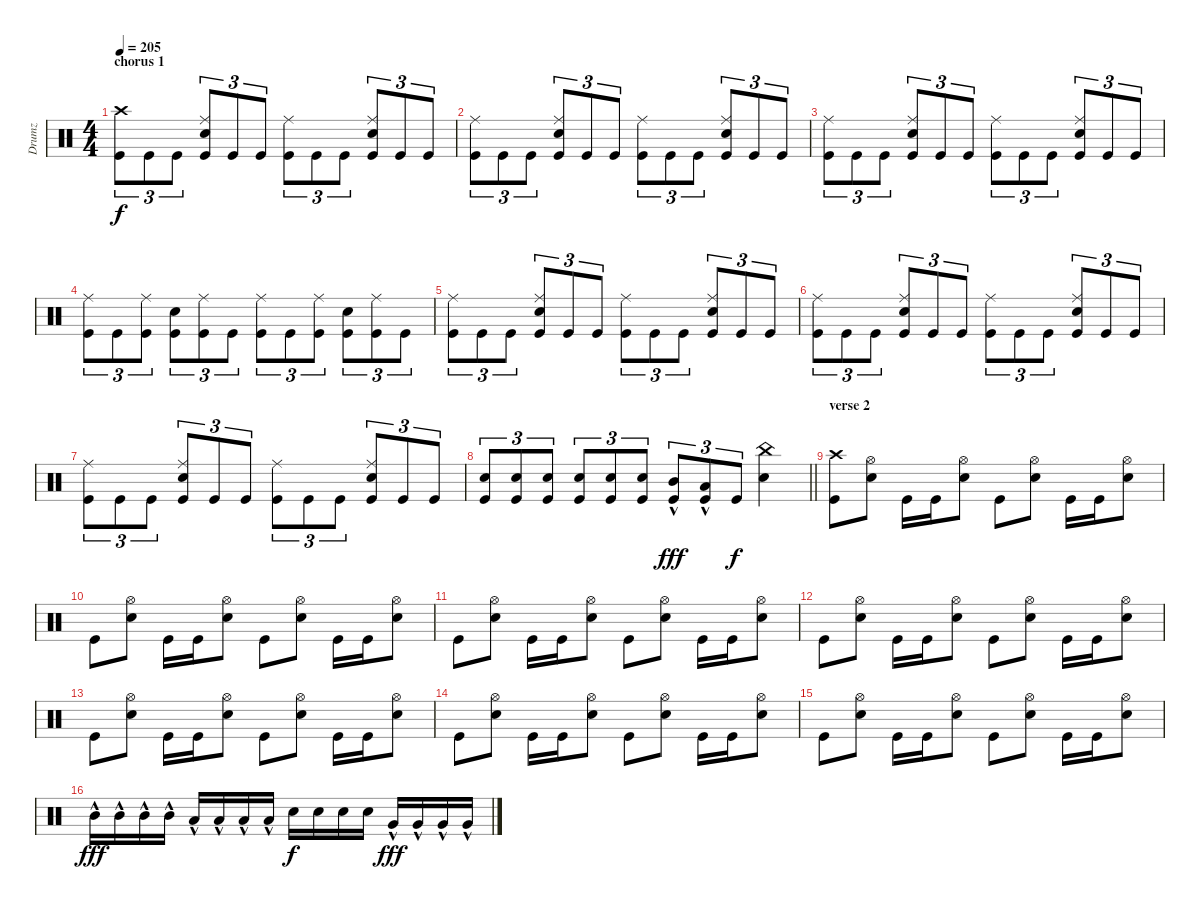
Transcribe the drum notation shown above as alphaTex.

\track ("Drumz" "Drumz") {instrument percussion}
\staff {score}
\articulation defaults
\ts (4 4)
\section ("" "chorus 1")
\tempo 205
\clef neutral
\ks c
("Crash high (hit)" "Kick (hit)").8{tu (3 2) dy f} "Kick (hit)".8{tu (3 2)} "Kick (hit)".8{tu (3 2)} ("Ride (middle)" "Electric Snare (hit)" "Kick (hit)").8{tu (3 2)} "Kick (hit)".8{tu (3 2)} "Kick (hit)".8{tu (3 2)} ("Ride (middle)" "Kick (hit)").8{tu (3 2)} "Kick (hit)".8{tu (3 2)} "Kick (hit)".8{tu (3 2)} ("Ride (middle)" "Electric Snare (hit)" "Kick (hit)").8{tu (3 2)} "Kick (hit)".8{tu (3 2)} "Kick (hit)".8{tu (3 2)} |
("Ride (middle)" "Kick (hit)").8{tu (3 2)} "Kick (hit)".8{tu (3 2)} "Kick (hit)".8{tu (3 2)} ("Ride (middle)" "Electric Snare (hit)" "Kick (hit)").8{tu (3 2)} "Kick (hit)".8{tu (3 2)} "Kick (hit)".8{tu (3 2)} ("Ride (middle)" "Kick (hit)").8{tu (3 2)} "Kick (hit)".8{tu (3 2)} "Kick (hit)".8{tu (3 2)} ("Ride (middle)" "Electric Snare (hit)" "Kick (hit)").8{tu (3 2)} "Kick (hit)".8{tu (3 2)} "Kick (hit)".8{tu (3 2)} |
("Ride (middle)" "Kick (hit)").8{tu (3 2)} "Kick (hit)".8{tu (3 2)} "Kick (hit)".8{tu (3 2)} ("Ride (middle)" "Electric Snare (hit)" "Kick (hit)").8{tu (3 2)} "Kick (hit)".8{tu (3 2)} "Kick (hit)".8{tu (3 2)} ("Ride (middle)" "Kick (hit)").8{tu (3 2)} "Kick (hit)".8{tu (3 2)} "Kick (hit)".8{tu (3 2)} ("Ride (middle)" "Electric Snare (hit)" "Kick (hit)").8{tu (3 2)} "Kick (hit)".8{tu (3 2)} "Kick (hit)".8{tu (3 2)} |
("Ride (middle)" "Kick (hit)").8{tu (3 2)} "Kick (hit)".8{tu (3 2)} ("Ride (middle)" "Kick (hit)").8{tu (3 2)} ("Electric Snare (hit)" "Kick (hit)").8{tu (3 2)} ("Ride (middle)" "Kick (hit)").8{tu (3 2)} "Kick (hit)".8{tu (3 2)} ("Ride (middle)" "Kick (hit)").8{tu (3 2)} "Kick (hit)".8{tu (3 2)} ("Ride (middle)" "Kick (hit)").8{tu (3 2)} ("Electric Snare (hit)" "Kick (hit)").8{tu (3 2)} ("Ride (middle)" "Kick (hit)").8{tu (3 2)} "Kick (hit)".8{tu (3 2)} |
("Ride (middle)" "Kick (hit)").8{tu (3 2)} "Kick (hit)".8{tu (3 2)} "Kick (hit)".8{tu (3 2)} ("Ride (middle)" "Electric Snare (hit)" "Kick (hit)").8{tu (3 2)} "Kick (hit)".8{tu (3 2)} "Kick (hit)".8{tu (3 2)} ("Ride (middle)" "Kick (hit)").8{tu (3 2)} "Kick (hit)".8{tu (3 2)} "Kick (hit)".8{tu (3 2)} ("Ride (middle)" "Electric Snare (hit)" "Kick (hit)").8{tu (3 2)} "Kick (hit)".8{tu (3 2)} "Kick (hit)".8{tu (3 2)} |
("Ride (middle)" "Kick (hit)").8{tu (3 2)} "Kick (hit)".8{tu (3 2)} "Kick (hit)".8{tu (3 2)} ("Ride (middle)" "Electric Snare (hit)" "Kick (hit)").8{tu (3 2)} "Kick (hit)".8{tu (3 2)} "Kick (hit)".8{tu (3 2)} ("Ride (middle)" "Kick (hit)").8{tu (3 2)} "Kick (hit)".8{tu (3 2)} "Kick (hit)".8{tu (3 2)} ("Ride (middle)" "Electric Snare (hit)" "Kick (hit)").8{tu (3 2)} "Kick (hit)".8{tu (3 2)} "Kick (hit)".8{tu (3 2)} |
("Ride (middle)" "Kick (hit)").8{tu (3 2)} "Kick (hit)".8{tu (3 2)} "Kick (hit)".8{tu (3 2)} ("Ride (middle)" "Electric Snare (hit)" "Kick (hit)").8{tu (3 2)} "Kick (hit)".8{tu (3 2)} "Kick (hit)".8{tu (3 2)} ("Ride (middle)" "Kick (hit)").8{tu (3 2)} "Kick (hit)".8{tu (3 2)} "Kick (hit)".8{tu (3 2)} ("Ride (middle)" "Electric Snare (hit)" "Kick (hit)").8{tu (3 2)} "Kick (hit)".8{tu (3 2)} "Kick (hit)".8{tu (3 2)} |
\barLineRight lightlight
("Electric Snare (hit)" "Kick (hit)").8{tu (3 2)} ("Electric Snare (hit)" "Kick (hit)").8{tu (3 2)} ("Electric Snare (hit)" "Kick (hit)").8{tu (3 2)} ("Electric Snare (hit)" "Kick (hit)").8{tu (3 2)} ("Electric Snare (hit)" "Kick (hit)").8{tu (3 2)} ("Electric Snare (hit)" "Kick (hit)").8{tu (3 2)} ("Mid Tom (hit)"{hac} "Kick (hit)").8{tu (3 2) dy fff} ("Low Tom (hit)"{hac} "Kick (hit)").8{tu (3 2)} "Kick (hit)".8{tu (3 2) dy f} ("China (hit)" "Electric Snare (hit)").4 |
\section ("" "verse 2")
("Crash high (hit)" "Kick (hit)").8 ("Hi-Hat (open)" "Electric Snare (hit)").8 "Kick (hit)".16 "Kick (hit)".16 ("Hi-Hat (open)" "Electric Snare (hit)").8 "Kick (hit)".8 ("Hi-Hat (open)" "Electric Snare (hit)").8 "Kick (hit)".16 "Kick (hit)".16 ("Hi-Hat (open)" "Electric Snare (hit)").8 |
"Kick (hit)".8 ("Hi-Hat (open)" "Electric Snare (hit)").8 "Kick (hit)".16 "Kick (hit)".16 ("Hi-Hat (open)" "Electric Snare (hit)").8 "Kick (hit)".8 ("Hi-Hat (open)" "Electric Snare (hit)").8 "Kick (hit)".16 "Kick (hit)".16 ("Hi-Hat (open)" "Electric Snare (hit)").8 |
"Kick (hit)".8 ("Hi-Hat (open)" "Electric Snare (hit)").8 "Kick (hit)".16 "Kick (hit)".16 ("Hi-Hat (open)" "Electric Snare (hit)").8 "Kick (hit)".8 ("Hi-Hat (open)" "Electric Snare (hit)").8 "Kick (hit)".16 "Kick (hit)".16 ("Hi-Hat (open)" "Electric Snare (hit)").8 |
"Kick (hit)".8 ("Hi-Hat (open)" "Electric Snare (hit)").8 "Kick (hit)".16 "Kick (hit)".16 ("Hi-Hat (open)" "Electric Snare (hit)").8 "Kick (hit)".8 ("Hi-Hat (open)" "Electric Snare (hit)").8 "Kick (hit)".16 "Kick (hit)".16 ("Hi-Hat (open)" "Electric Snare (hit)").8 |
"Kick (hit)".8 ("Hi-Hat (open)" "Electric Snare (hit)").8 "Kick (hit)".16 "Kick (hit)".16 ("Hi-Hat (open)" "Electric Snare (hit)").8 "Kick (hit)".8 ("Hi-Hat (open)" "Electric Snare (hit)").8 "Kick (hit)".16 "Kick (hit)".16 ("Hi-Hat (open)" "Electric Snare (hit)").8 |
"Kick (hit)".8 ("Hi-Hat (open)" "Electric Snare (hit)").8 "Kick (hit)".16 "Kick (hit)".16 ("Hi-Hat (open)" "Electric Snare (hit)").8 "Kick (hit)".8 ("Hi-Hat (open)" "Electric Snare (hit)").8 "Kick (hit)".16 "Kick (hit)".16 ("Hi-Hat (open)" "Electric Snare (hit)").8 |
"Kick (hit)".8 ("Hi-Hat (open)" "Electric Snare (hit)").8 "Kick (hit)".16 "Kick (hit)".16 ("Hi-Hat (open)" "Electric Snare (hit)").8 "Kick (hit)".8 ("Hi-Hat (open)" "Electric Snare (hit)").8 "Kick (hit)".16 "Kick (hit)".16 ("Hi-Hat (open)" "Electric Snare (hit)").8 |
"Mid Tom (hit)"{hac}.16{dy fff} "Mid Tom (hit)"{hac}.16 "Mid Tom (hit)"{hac}.16 "Mid Tom (hit)"{hac}.16 "Low Tom (hit)"{hac}.16 "Low Tom (hit)"{hac}.16 "Low Tom (hit)"{hac}.16 "Low Tom (hit)"{hac}.16 "Electric Snare (hit)".16{dy f} "Electric Snare (hit)".16 "Electric Snare (hit)".16 "Electric Snare (hit)".16 "Very Low Tom (hit)"{hac}.16{dy fff} "Very Low Tom (hit)"{hac}.16 "Very Low Tom (hit)"{hac}.16 "Very Low Tom (hit)"{hac}.16
